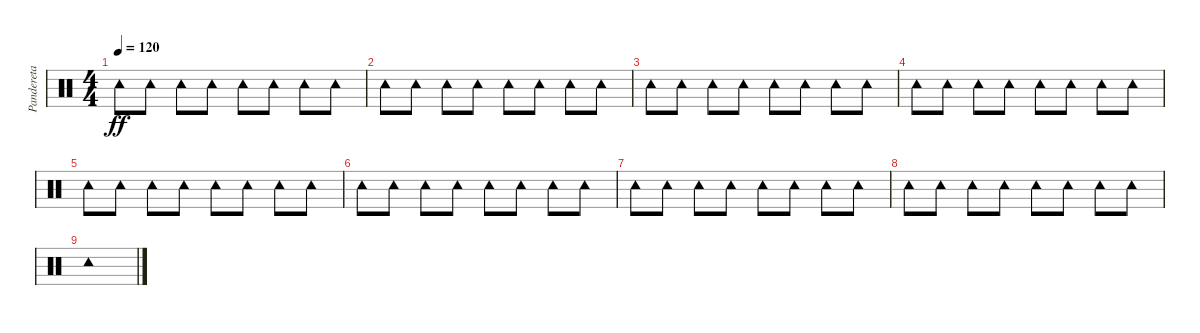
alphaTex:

\track ("Pandereta" "Pandereta") {instrument percussion}
\staff {score}
\articulation defaults
\ts (4 4)
\tempo 120
\clef neutral
\ks c "Tambourine (hit)".8{dy ff} "Tambourine (hit)".8 "Tambourine (hit)".8 "Tambourine (hit)".8 "Tambourine (hit)".8 "Tambourine (hit)".8 "Tambourine (hit)".8 "Tambourine (hit)".8
|
"Tambourine (hit)".8 "Tambourine (hit)".8 "Tambourine (hit)".8 "Tambourine (hit)".8 "Tambourine (hit)".8 "Tambourine (hit)".8 "Tambourine (hit)".8 "Tambourine (hit)".8 |
"Tambourine (hit)".8 "Tambourine (hit)".8 "Tambourine (hit)".8 "Tambourine (hit)".8 "Tambourine (hit)".8 "Tambourine (hit)".8 "Tambourine (hit)".8 "Tambourine (hit)".8 |
"Tambourine (hit)".8 "Tambourine (hit)".8 "Tambourine (hit)".8 "Tambourine (hit)".8 "Tambourine (hit)".8 "Tambourine (hit)".8 "Tambourine (hit)".8 "Tambourine (hit)".8 |
"Tambourine (hit)".8 "Tambourine (hit)".8 "Tambourine (hit)".8 "Tambourine (hit)".8 "Tambourine (hit)".8 "Tambourine (hit)".8 "Tambourine (hit)".8 "Tambourine (hit)".8 |
"Tambourine (hit)".8 "Tambourine (hit)".8 "Tambourine (hit)".8 "Tambourine (hit)".8 "Tambourine (hit)".8 "Tambourine (hit)".8 "Tambourine (hit)".8 "Tambourine (hit)".8 |
"Tambourine (hit)".8 "Tambourine (hit)".8 "Tambourine (hit)".8 "Tambourine (hit)".8 "Tambourine (hit)".8 "Tambourine (hit)".8 "Tambourine (hit)".8 "Tambourine (hit)".8 |
"Tambourine (hit)".8 "Tambourine (hit)".8 "Tambourine (hit)".8 "Tambourine (hit)".8 "Tambourine (hit)".8 "Tambourine (hit)".8 "Tambourine (hit)".8 "Tambourine (hit)".8 |
"Tambourine (hit)".1
